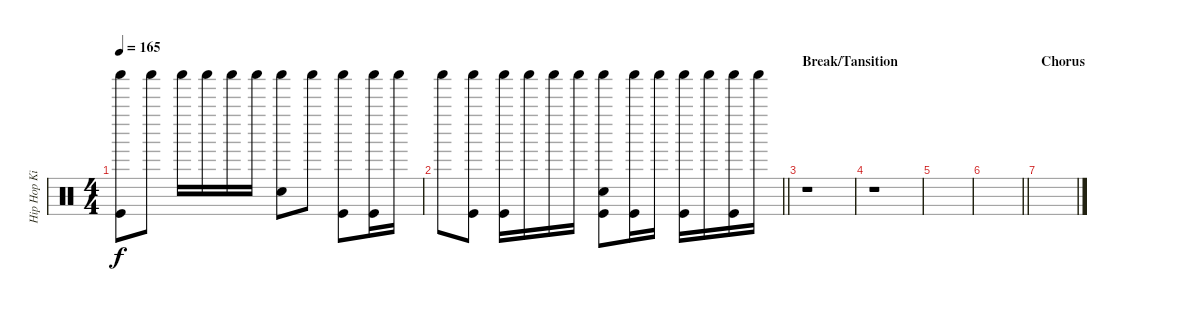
\track ("Hip Hop Kit" "Hip Hop Ki") {instrument percussion}
\staff {score}
\articulation defaults
\ts (4 4)
\tempo 165
\clef neutral
\ks c
("Shaker (hit)" "Kick (hit)").8{dy f} "Shaker (hit)".8 "Shaker (hit)".16 "Shaker (hit)".16 "Shaker (hit)".16 "Shaker (hit)".16 ("Shaker (hit)" "Snare (hit) 2").8 "Shaker (hit)".8 ("Shaker (hit)" "Kick (hit)").8 ("Shaker (hit)" "Kick (hit)").16 "Shaker (hit)".16 |
\barLineRight lightlight "Shaker (hit)".8
("Shaker (hit)" "Kick (hit)").8 ("Shaker (hit)" "Kick (hit)").16 "Shaker (hit)".16 "Shaker (hit)".16 "Shaker (hit)".16 ("Shaker (hit)" "Snare (hit) 2" "Kick (hit)").8 ("Shaker (hit)" "Kick (hit)").16 "Shaker (hit)".16 ("Shaker (hit)" "Kick (hit)").16 "Shaker (hit)".16 ("Shaker (hit)" "Kick (hit)").16 "Shaker (hit)".16 |
\section ("" "Break/Tansition")
r.1 |
r.1 |
|
\barLineRight lightlight
|
\section ("" "Chorus")
